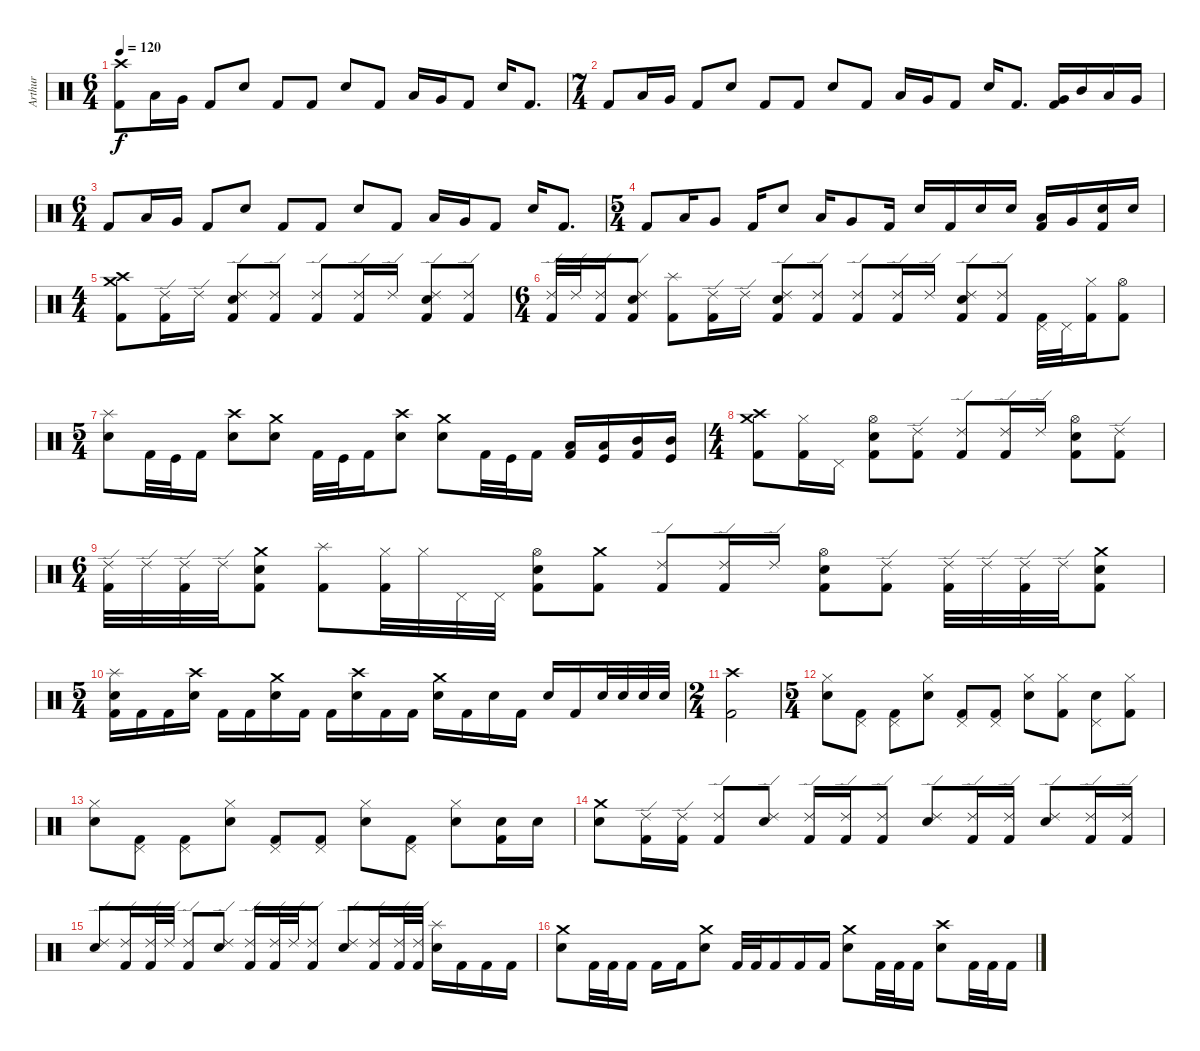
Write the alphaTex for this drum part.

\track ("Arthur" "Arthur") {instrument percussion}
\staff {score}
\articulation defaults
\ts (6 4)
\tempo 120
\clef neutral
\ks c
("Crash high (hit)" "Kick (hit) 2").8{dy f} "Low Tom (hit)".16 "Very Low Tom (hit)".16 "Kick (hit) 2".8 "Electric Snare (hit)".8 "Kick (hit) 2".8 "Kick (hit) 2".8 "Electric Snare (hit)".8 "Kick (hit) 2".8 "Low Tom (hit)".16 "Very Low Tom (hit)".16 "Kick (hit) 2".8 "Electric Snare (hit)".16 "Kick (hit) 2".8{d} |
\ts (7 4)
"Kick (hit) 2".8 "Low Tom (hit)".16 "Very Low Tom (hit)".16 "Kick (hit) 2".8 "Electric Snare (hit)".8 "Kick (hit) 2".8 "Kick (hit) 2".8 "Electric Snare (hit)".8 "Kick (hit) 2".8 "Low Tom (hit)".16 "Very Low Tom (hit)".16 "Kick (hit) 2".8 "Electric Snare (hit)".16 "Kick (hit) 2".8{d} ("Very Low Tom (hit)" "Kick (hit) 2").16 "Mid Tom (hit)".16 "Low Tom (hit)".16 "Very Low Tom (hit)".16 |
\ts (6 4)
"Kick (hit) 2".8 "Low Tom (hit)".16 "Very Low Tom (hit)".16 "Kick (hit) 2".8 "Electric Snare (hit)".8 "Kick (hit) 2".8 "Kick (hit) 2".8 "Electric Snare (hit)".8 "Kick (hit) 2".8 "Low Tom (hit)".16 "Very Low Tom (hit)".16 "Kick (hit) 2".8 "Electric Snare (hit)".16 "Kick (hit) 2".8{d} |
\ts (5 4)
"Kick (hit) 2".8 "Low Tom (hit)".16 "Very Low Tom (hit)".8 "Kick (hit) 2".16 "Electric Snare (hit)".8 "Low Tom (hit)".16 "Very Low Tom (hit)".8 "Kick (hit) 2".16 "Electric Snare (hit)".16 "Kick (hit) 2".16 "Electric Snare (hit)".16 "Electric Snare (hit)".16 ("Low Tom (hit)" "Kick (hit) 2").16 "Very Low Tom (hit)".16 ("Electric Snare (hit)" "Kick (hit) 2").16 "Electric Snare (hit)".16 |
\ts (4 4)
("Crash high (hit)" "Crash medium (hit)" "Kick (hit) 2").8 ("Ride (edge) 2" "Kick (hit) 2").16 "Ride (edge) 2".16 ("Ride (edge) 2" "Electric Snare (hit)" "Kick (hit) 2").8 ("Ride (edge) 2" "Kick (hit) 2").8 ("Ride (edge) 2" "Kick (hit) 2").8 ("Ride (edge) 2" "Kick (hit) 2").16 "Ride (edge) 2".16 ("Ride (edge) 2" "Electric Snare (hit)" "Kick (hit) 2").8 ("Ride (edge) 2" "Kick (hit) 2").8 |
\ts (6 4)
("Ride (edge) 2" "Kick (hit) 2").32 "Ride (edge) 2".32 ("Ride (edge) 2" "Kick (hit) 2").16 ("Ride (edge) 2" "Electric Snare (hit)" "Kick (hit) 2").8 ("Splash (hit)" "Kick (hit) 2").8 ("Ride (edge) 2" "Kick (hit) 2").16 "Ride (edge) 2".16 ("Ride (edge) 2" "Electric Snare (hit)" "Kick (hit) 2").8 ("Ride (edge) 2" "Kick (hit) 2").8 ("Ride (edge) 2" "Kick (hit) 2").8 ("Ride (edge) 2" "Kick (hit) 2").16 "Ride (edge) 2".16 ("Ride (edge) 2" "Electric Snare (hit)" "Kick (hit) 2").8 ("Ride (edge) 2" "Kick (hit) 2").8 ("Pedal Hi-Hat (hit)" "Kick (hit) 2").32 "Pedal Hi-Hat (hit)".32 ("Hi-Hat (closed)" "Kick (hit) 2").16 ("Hi-Hat (open)" "Kick (hit) 2").8 |
\ts (5 4)
("Splash (hit)" "Electric Snare (hit)").8 "Kick (hit) 2".32 "Kick (hit)".32 "Kick (hit) 2".16 ("Crash high (hit)" "Electric Snare (hit)").8 ("Crash medium (hit)" "Electric Snare (hit)").8 "Kick (hit) 2".32 "Kick (hit)".32 "Kick (hit) 2".16 ("Crash high (hit)" "Electric Snare (hit)").8 ("Crash medium (hit)" "Electric Snare (hit)").8 "Kick (hit) 2".32 "Kick (hit)".32 "Kick (hit) 2".16 ("Low Tom (hit)" "Kick (hit) 2").16 ("Low Tom (hit)" "Kick (hit)").16 ("Mid Tom (hit)" "Kick (hit) 2").16 ("Mid Tom (hit)" "Kick (hit)").16 |
\ts (4 4)
("Crash high (hit)" "Crash medium (hit)" "Kick (hit) 2").8 ("Hi-Hat (closed)" "Kick (hit) 2").16 "Pedal Hi-Hat (hit)".16 ("Hi-Hat (open)" "Electric Snare (hit)" "Kick (hit) 2").8 ("Ride (edge) 2" "Kick (hit) 2").8 ("Ride (edge) 2" "Kick (hit) 2").8 ("Ride (edge) 2" "Kick (hit) 2").16 "Ride (edge) 2".16 ("Hi-Hat (open)" "Electric Snare (hit)" "Kick (hit) 2").8 ("Ride (edge) 2" "Kick (hit) 2").8 |
\ts (6 4)
("Ride (edge) 2" "Kick (hit) 2").32 "Ride (edge) 2".32 ("Ride (edge) 2" "Kick (hit) 2").32 "Ride (edge) 2".32 ("Crash medium (hit)" "Electric Snare (hit)" "Kick (hit) 2").8 ("Splash (hit)" "Kick (hit) 2").8 ("Hi-Hat (closed)" "Kick (hit) 2").32 "Hi-Hat (closed)".32 "Pedal Hi-Hat (hit)".32 "Pedal Hi-Hat (hit)".32 ("Hi-Hat (open)" "Electric Snare (hit)" "Kick (hit) 2").8 ("Crash medium (hit)" "Kick (hit) 2").8 ("Ride (edge) 2" "Kick (hit) 2").8 ("Ride (edge) 2" "Kick (hit) 2").16 "Ride (edge) 2".16 ("Hi-Hat (open)" "Electric Snare (hit)" "Kick (hit) 2").8 ("Ride (edge) 2" "Kick (hit) 2").8 ("Ride (edge) 2" "Kick (hit) 2").32 "Ride (edge) 2".32 ("Ride (edge) 2" "Kick (hit) 2").32 "Ride (edge) 2".32 ("Crash medium (hit)" "Electric Snare (hit)" "Kick (hit) 2").8 |
\ts (5 4)
("Splash (hit)" "Electric Snare (hit)" "Kick (hit) 2").16 "Kick (hit) 2".16 "Kick (hit) 2".16 ("Crash high (hit)" "Electric Snare (hit)").16 "Kick (hit) 2".16 "Kick (hit) 2".16 ("Crash medium (hit)" "Electric Snare (hit)").16 "Kick (hit) 2".16 "Kick (hit) 2".16 ("Crash high (hit)" "Electric Snare (hit)").16 "Kick (hit) 2".16 "Kick (hit) 2".16 ("Crash medium (hit)" "Electric Snare (hit)").16 "Kick (hit) 2".16 "Electric Snare (hit)".16 "Kick (hit) 2".16 "Electric Snare (hit)".16 "Kick (hit) 2".16 "Electric Snare (hit)".32 "Electric Snare (hit)".32 "Electric Snare (hit)".32 "Electric Snare (hit)".32 |
\ts (2 4)
("Crash high (hit)" "Kick (hit) 2").2 |
\ts (5 4)
("Hi-Hat (closed)" "Electric Snare (hit)").8 ("Pedal Hi-Hat (hit)" "Kick (hit) 2").8 ("Pedal Hi-Hat (hit)" "Kick (hit) 2").8 ("Hi-Hat (closed)" "Electric Snare (hit)").8 ("Pedal Hi-Hat (hit)" "Kick (hit) 2").8 ("Pedal Hi-Hat (hit)" "Kick (hit) 2").8 ("Hi-Hat (closed)" "Electric Snare (hit)").8 ("Hi-Hat (closed)" "Kick (hit) 2").8 ("Pedal Hi-Hat (hit)" "Electric Snare (hit)").8 ("Hi-Hat (closed)" "Kick (hit) 2").8 |
("Hi-Hat (closed)" "Electric Snare (hit)").8 ("Pedal Hi-Hat (hit)" "Kick (hit) 2").8 ("Pedal Hi-Hat (hit)" "Kick (hit) 2").8 ("Hi-Hat (closed)" "Electric Snare (hit)").8 ("Pedal Hi-Hat (hit)" "Kick (hit) 2").8 ("Pedal Hi-Hat (hit)" "Kick (hit) 2").8 ("Hi-Hat (closed)" "Electric Snare (hit)").8 ("Pedal Hi-Hat (hit)" "Kick (hit) 2").8 ("Hi-Hat (closed)" "Electric Snare (hit)").8 ("Electric Snare (hit)" "Kick (hit) 2").16 "Electric Snare (hit)".16 |
("Crash medium (hit)" "Electric Snare (hit)").8 ("Ride (edge) 2" "Kick (hit) 2").16 ("Ride (edge) 2" "Kick (hit) 2").16 ("Ride (edge) 2" "Kick (hit) 2").8 ("Ride (edge) 2" "Electric Snare (hit)").8 ("Ride (edge) 2" "Kick (hit) 2").16 ("Ride (edge) 2" "Kick (hit) 2").16 ("Ride (edge) 2" "Kick (hit) 2").8 ("Ride (edge) 2" "Electric Snare (hit)").8 ("Ride (edge) 2" "Kick (hit) 2").16 ("Ride (edge) 2" "Kick (hit) 2").16 ("Ride (edge) 2" "Electric Snare (hit)").8 ("Ride (edge) 2" "Kick (hit) 2").16 ("Ride (edge) 2" "Kick (hit) 2").16 |
("Ride (edge) 2" "Electric Snare (hit)").8 ("Ride (edge) 2" "Kick (hit) 2").16 ("Ride (edge) 2" "Kick (hit) 2").32 "Ride (edge) 2".32 ("Ride (edge) 2" "Kick (hit) 2").8 ("Ride (edge) 2" "Electric Snare (hit)").8 ("Ride (edge) 2" "Kick (hit) 2").16 ("Ride (edge) 2" "Kick (hit) 2").32 "Ride (edge) 2".32 ("Ride (edge) 2" "Kick (hit) 2").8 ("Ride (edge) 2" "Electric Snare (hit)").8 ("Ride (edge) 2" "Kick (hit) 2").16 ("Ride (edge) 2" "Kick (hit) 2").32 ("Ride (edge) 2" "Kick (hit) 2").32 ("Splash (hit)" "Electric Snare (hit)").16 "Kick (hit) 2".16 "Kick (hit) 2".16 "Kick (hit) 2".16 |
("Crash medium (hit)" "Electric Snare (hit)").8 "Kick (hit) 2".32 "Kick (hit) 2".32 "Kick (hit) 2".16 "Kick (hit) 2".16 "Kick (hit) 2".16 ("Crash medium (hit)" "Electric Snare (hit)").8 "Kick (hit) 2".32 "Kick (hit) 2".32 "Kick (hit) 2".16 "Kick (hit) 2".16 "Kick (hit) 2".16 ("Crash medium (hit)" "Electric Snare (hit)").8 "Kick (hit) 2".32 "Kick (hit) 2".32 "Kick (hit) 2".16 ("Crash high (hit)" "Electric Snare (hit)").8 "Kick (hit) 2".32 "Kick (hit) 2".32 "Kick (hit) 2".16
